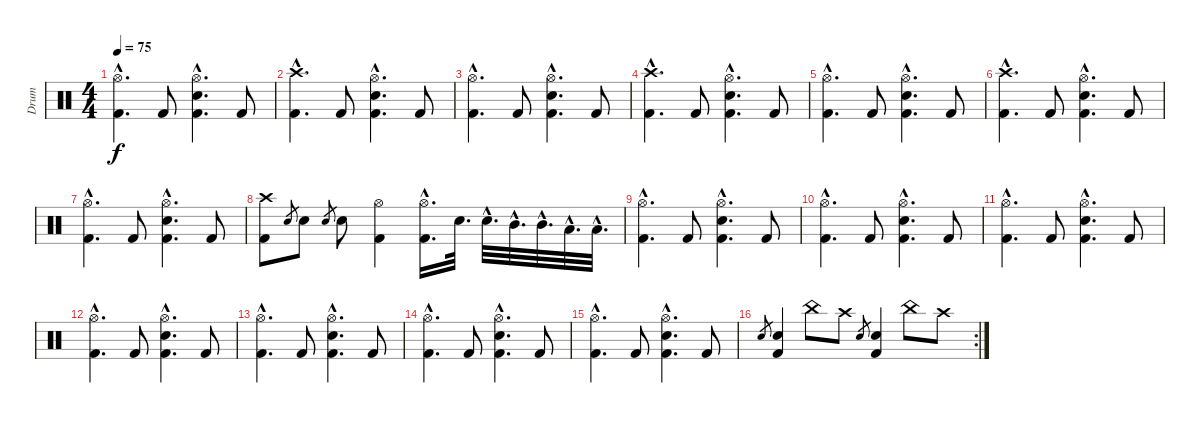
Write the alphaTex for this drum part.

\track ("Drum" "Drum") {instrument percussion}
\staff {score}
\articulation defaults
\ts (4 4)
\tempo 75
\clef neutral
\ks c
("Hi-Hat (open)"{hac} "Kick (hit) 2"{hac}).4{d dy f} "Kick (hit) 2".8 ("Hi-Hat (open)"{hac} "Snare (hit) 2"{hac} "Kick (hit) 2"{hac}).4{d} "Kick (hit) 2".8 |
("Crash high (hit)"{hac} "Kick (hit) 2"{hac}).4{d} "Kick (hit) 2".8 ("Hi-Hat (open)"{hac} "Snare (hit) 2"{hac} "Kick (hit) 2"{hac}).4{d} "Kick (hit) 2".8 |
("Hi-Hat (open)"{hac} "Kick (hit) 2"{hac}).4{d} "Kick (hit) 2".8 ("Hi-Hat (open)"{hac} "Snare (hit) 2"{hac} "Kick (hit) 2"{hac}).4{d} "Kick (hit) 2".8 |
("Crash high (hit)"{hac} "Kick (hit) 2"{hac}).4{d} "Kick (hit) 2".8 ("Hi-Hat (open)"{hac} "Snare (hit) 2"{hac} "Kick (hit) 2"{hac}).4{d} "Kick (hit) 2".8 |
("Hi-Hat (open)"{hac} "Kick (hit) 2"{hac}).4{d} "Kick (hit) 2".8 ("Hi-Hat (open)"{hac} "Snare (hit) 2"{hac} "Kick (hit) 2"{hac}).4{d} "Kick (hit) 2".8 |
("Crash high (hit)"{hac} "Kick (hit) 2"{hac}).4{d} "Kick (hit) 2".8 ("Hi-Hat (open)"{hac} "Snare (hit) 2"{hac} "Kick (hit) 2"{hac}).4{d} "Kick (hit) 2".8 |
("Hi-Hat (open)"{hac} "Kick (hit) 2"{hac}).4{d} "Kick (hit) 2".8 ("Hi-Hat (open)"{hac} "Snare (hit) 2"{hac} "Kick (hit) 2"{hac}).4{d} "Kick (hit) 2".8 |
("Crash high (hit)" "Kick (hit) 2").8 "Snare (hit) 2".8{gr} "Snare (hit) 2".8 "Snare (hit) 2".8{gr} "Snare (hit) 2".8 ("Hi-Hat (open)" "Kick (hit) 2").4 ("Hi-Hat (open)"{hac} "Kick (hit) 2"{hac}).16{d} "Snare (hit) 2".32{d} "Snare (hit) 2"{hac}.32{d} "Mid Tom (hit)"{hac}.32{d} "Mid Tom (hit)"{hac}.32{d} "Low Tom (hit)"{hac}.32{d} "Low Tom (hit)"{hac}.32{d} |
("Hi-Hat (open)"{hac} "Kick (hit) 2"{hac}).4{d} "Kick (hit) 2".8 ("Hi-Hat (open)"{hac} "Snare (hit) 2"{hac} "Kick (hit) 2"{hac}).4{d} "Kick (hit) 2".8 |
("Hi-Hat (open)"{hac} "Kick (hit) 2"{hac}).4{d} "Kick (hit) 2".8 ("Hi-Hat (open)"{hac} "Snare (hit) 2"{hac} "Kick (hit) 2"{hac}).4{d} "Kick (hit) 2".8 |
("Hi-Hat (open)"{hac} "Kick (hit) 2"{hac}).4{d} "Kick (hit) 2".8 ("Hi-Hat (open)"{hac} "Snare (hit) 2"{hac} "Kick (hit) 2"{hac}).4{d} "Kick (hit) 2".8 |
("Hi-Hat (open)"{hac} "Kick (hit) 2"{hac}).4{d} "Kick (hit) 2".8 ("Hi-Hat (open)"{hac} "Snare (hit) 2"{hac} "Kick (hit) 2"{hac}).4{d} "Kick (hit) 2".8 |
("Hi-Hat (open)"{hac} "Kick (hit) 2"{hac}).4{d} "Kick (hit) 2".8 ("Hi-Hat (open)"{hac} "Snare (hit) 2"{hac} "Kick (hit) 2"{hac}).4{d} "Kick (hit) 2".8 |
("Hi-Hat (open)"{hac} "Kick (hit) 2"{hac}).4{d} "Kick (hit) 2".8 ("Hi-Hat (open)"{hac} "Snare (hit) 2"{hac} "Kick (hit) 2"{hac}).4{d} "Kick (hit) 2".8 |
("Hi-Hat (open)"{hac} "Kick (hit) 2"{hac}).4{d} "Kick (hit) 2".8 ("Hi-Hat (open)"{hac} "Snare (hit) 2"{hac} "Kick (hit) 2"{hac}).4{d} "Kick (hit) 2".8 |
\rc 2 "Snare (hit) 2".8{gr}
("Snare (hit) 2" "Kick (hit) 2").4 "China (hit)".8 "Crash high (hit)".8 "Snare (hit) 2".8{gr} ("Snare (hit) 2" "Kick (hit) 2").4 "China (hit)".8 "Crash high (hit)".8
